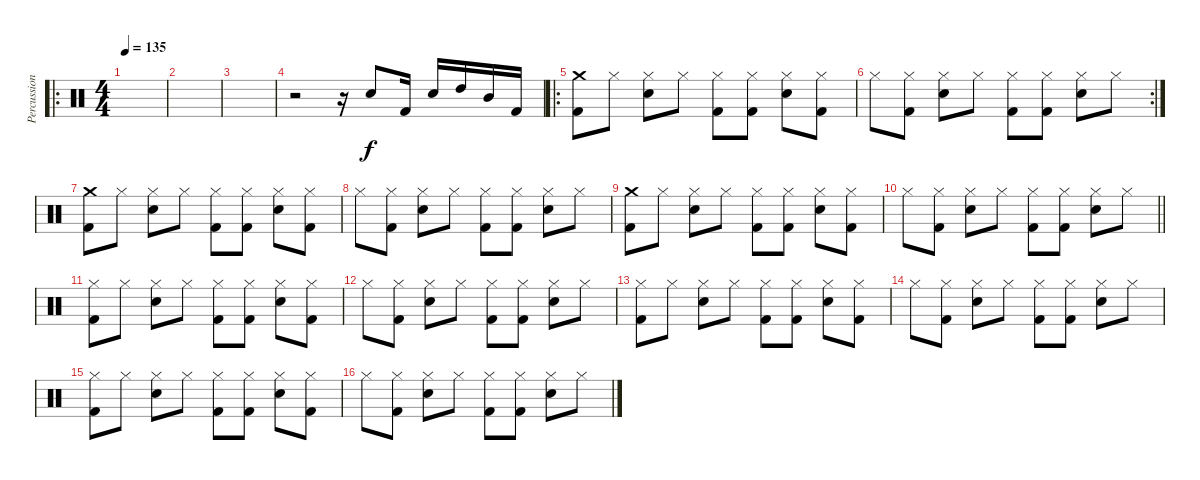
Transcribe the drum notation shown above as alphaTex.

\track ("Percussion" "Percussion") {instrument percussion}
\staff {score}
\articulation defaults
\ro
\ts (4 4)
\tempo 135
\clef neutral
\ks c
|
|
|
r.2 r.16 "Snare (hit) 2".8 "Kick (hit) 2".16 "Snare (hit) 2".16 "High Tom (hit)".16 "Mid Tom (hit)".16 "Kick (hit) 2".16 |
\ro
("Crash medium (hit)" "Kick (hit) 2").8 "Hi-Hat (closed)".8 ("Hi-Hat (closed)" "Snare (hit) 2").8 "Hi-Hat (closed)".8 ("Hi-Hat (closed)" "Kick (hit) 2").8 ("Hi-Hat (closed)" "Kick (hit) 2").8 ("Hi-Hat (closed)" "Snare (hit) 2").8 ("Hi-Hat (closed)" "Kick (hit) 2").8 |
\rc 2 "Hi-Hat (closed)".8
("Hi-Hat (closed)" "Kick (hit) 2").8 ("Hi-Hat (closed)" "Snare (hit) 2").8 "Hi-Hat (closed)".8 ("Hi-Hat (closed)" "Kick (hit) 2").8 ("Hi-Hat (closed)" "Kick (hit) 2").8 ("Hi-Hat (closed)" "Snare (hit) 2").8 "Hi-Hat (closed)".8 |
("Crash medium (hit)" "Kick (hit) 2").8 "Hi-Hat (closed)".8 ("Hi-Hat (closed)" "Snare (hit) 2").8 "Hi-Hat (closed)".8 ("Hi-Hat (closed)" "Kick (hit) 2").8 ("Hi-Hat (closed)" "Kick (hit) 2").8 ("Hi-Hat (closed)" "Snare (hit) 2").8 ("Hi-Hat (closed)" "Kick (hit) 2").8 |
"Hi-Hat (closed)".8 ("Hi-Hat (closed)" "Kick (hit) 2").8 ("Hi-Hat (closed)" "Snare (hit) 2").8 "Hi-Hat (closed)".8 ("Hi-Hat (closed)" "Kick (hit) 2").8 ("Hi-Hat (closed)" "Kick (hit) 2").8 ("Hi-Hat (closed)" "Snare (hit) 2").8 "Hi-Hat (closed)".8 |
("Crash medium (hit)" "Kick (hit) 2").8 "Hi-Hat (closed)".8 ("Hi-Hat (closed)" "Snare (hit) 2").8 "Hi-Hat (closed)".8 ("Hi-Hat (closed)" "Kick (hit) 2").8 ("Hi-Hat (closed)" "Kick (hit) 2").8 ("Hi-Hat (closed)" "Snare (hit) 2").8 ("Hi-Hat (closed)" "Kick (hit) 2").8 |
\barLineRight lightlight "Hi-Hat (closed)".8
("Hi-Hat (closed)" "Kick (hit) 2").8 ("Hi-Hat (closed)" "Snare (hit) 2").8 "Hi-Hat (closed)".8 ("Hi-Hat (closed)" "Kick (hit) 2").8 ("Hi-Hat (closed)" "Kick (hit) 2").8 ("Hi-Hat (closed)" "Snare (hit) 2").8 "Hi-Hat (closed)".8 |
("Hi-Hat (closed)" "Kick (hit) 2").8{volume 11} "Hi-Hat (closed)".8 ("Hi-Hat (closed)" "Snare (hit) 2").8 "Hi-Hat (closed)".8 ("Hi-Hat (closed)" "Kick (hit) 2").8 ("Hi-Hat (closed)" "Kick (hit) 2").8 ("Hi-Hat (closed)" "Snare (hit) 2").8 ("Hi-Hat (closed)" "Kick (hit) 2").8 |
"Hi-Hat (closed)".8 ("Hi-Hat (closed)" "Kick (hit) 2").8 ("Hi-Hat (closed)" "Snare (hit) 2").8 "Hi-Hat (closed)".8 ("Hi-Hat (closed)" "Kick (hit) 2").8 ("Hi-Hat (closed)" "Kick (hit) 2").8 ("Hi-Hat (closed)" "Snare (hit) 2").8 "Hi-Hat (closed)".8 |
("Hi-Hat (closed)" "Kick (hit) 2").8 "Hi-Hat (closed)".8 ("Hi-Hat (closed)" "Snare (hit) 2").8 "Hi-Hat (closed)".8 ("Hi-Hat (closed)" "Kick (hit) 2").8 ("Hi-Hat (closed)" "Kick (hit) 2").8 ("Hi-Hat (closed)" "Snare (hit) 2").8 ("Hi-Hat (closed)" "Kick (hit) 2").8 |
"Hi-Hat (closed)".8 ("Hi-Hat (closed)" "Kick (hit) 2").8 ("Hi-Hat (closed)" "Snare (hit) 2").8 "Hi-Hat (closed)".8 ("Hi-Hat (closed)" "Kick (hit) 2").8 ("Hi-Hat (closed)" "Kick (hit) 2").8 ("Hi-Hat (closed)" "Snare (hit) 2").8 "Hi-Hat (closed)".8 |
("Hi-Hat (closed)" "Kick (hit) 2").8 "Hi-Hat (closed)".8 ("Hi-Hat (closed)" "Snare (hit) 2").8 "Hi-Hat (closed)".8 ("Hi-Hat (closed)" "Kick (hit) 2").8 ("Hi-Hat (closed)" "Kick (hit) 2").8 ("Hi-Hat (closed)" "Snare (hit) 2").8 ("Hi-Hat (closed)" "Kick (hit) 2").8 |
"Hi-Hat (closed)".8 ("Hi-Hat (closed)" "Kick (hit) 2").8 ("Hi-Hat (closed)" "Snare (hit) 2").8 "Hi-Hat (closed)".8 ("Hi-Hat (closed)" "Kick (hit) 2").8 ("Hi-Hat (closed)" "Kick (hit) 2").8 ("Hi-Hat (closed)" "Snare (hit) 2").8 "Hi-Hat (closed)".8
